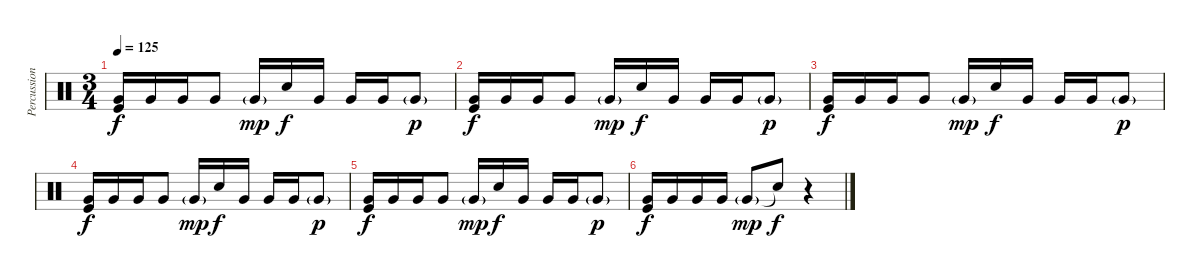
\track ("Percussion" "Percussion") {instrument percussion}
\staff {score}
\articulation defaults
\ts (3 4)
\tempo 125
\clef neutral
\ks c
("Very Low Tom (hit)" "Kick (hit)").16{dy f} "Very Low Tom (hit)".16 "Very Low Tom (hit)".16 "Very Low Tom (hit)".8 "Very Low Tom (hit)"{g}.16{dy mp} "Electric Snare (hit)".16{dy f} "Very Low Tom (hit)".16 "Very Low Tom (hit)".16 "Very Low Tom (hit)".16 "Very Low Tom (hit)"{g}.8{dy p} |
("Very Low Tom (hit)" "Kick (hit)").16{dy f} "Very Low Tom (hit)".16 "Very Low Tom (hit)".16 "Very Low Tom (hit)".8 "Very Low Tom (hit)"{g}.16{dy mp} "Electric Snare (hit)".16{dy f} "Very Low Tom (hit)".16 "Very Low Tom (hit)".16 "Very Low Tom (hit)".16 "Very Low Tom (hit)"{g}.8{dy p} |
("Very Low Tom (hit)" "Kick (hit)").16{dy f} "Very Low Tom (hit)".16 "Very Low Tom (hit)".16 "Very Low Tom (hit)".8 "Very Low Tom (hit)"{g}.16{dy mp} "Electric Snare (hit)".16{dy f} "Very Low Tom (hit)".16 "Very Low Tom (hit)".16 "Very Low Tom (hit)".16 "Very Low Tom (hit)"{g}.8{dy p} |
("Very Low Tom (hit)" "Kick (hit)").16{dy f} "Very Low Tom (hit)".16 "Very Low Tom (hit)".16 "Very Low Tom (hit)".8 "Very Low Tom (hit)"{g}.16{dy mp} "Electric Snare (hit)".16{dy f} "Very Low Tom (hit)".16 "Very Low Tom (hit)".16 "Very Low Tom (hit)".16 "Very Low Tom (hit)"{g}.8{dy p} |
("Very Low Tom (hit)" "Kick (hit)").16{dy f} "Very Low Tom (hit)".16 "Very Low Tom (hit)".16 "Very Low Tom (hit)".8 "Very Low Tom (hit)"{g}.16{dy mp} "Electric Snare (hit)".16{dy f} "Very Low Tom (hit)".16 "Very Low Tom (hit)".16 "Very Low Tom (hit)".16 "Very Low Tom (hit)"{g}.8{dy p} |
("Very Low Tom (hit)" "Kick (hit)").16{dy f} "Very Low Tom (hit)".16 "Very Low Tom (hit)".16 "Very Low Tom (hit)".16 "Very Low Tom (hit)"{g}.8{dy mp} "Snare (hit)"{t}.8{dy f} r.4
